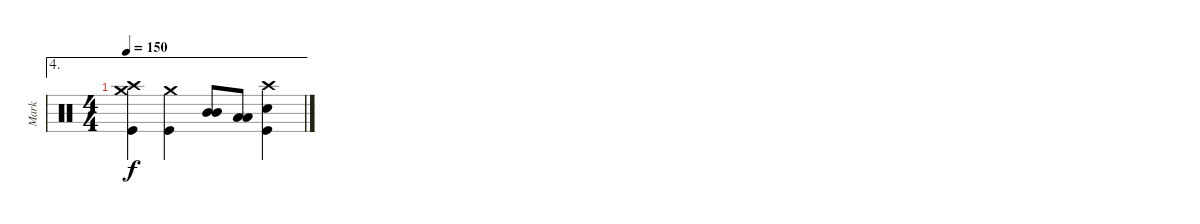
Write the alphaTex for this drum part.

\track ("Mark" "Mark") {instrument percussion}
\staff {score}
\articulation defaults
\ae 4
\ts (4 4)
\tempo 150
\clef neutral
\ks c
("Crash high (hit)" "Crash medium (hit)" "Kick (hit)").4{dy f} ("Crash medium (hit)" "Kick (hit)").4 ("Mid Tom (hit)" "Mid Tom (hit)").8 ("Low Tom (hit)" "Low Tom (hit)").8 ("Crash high (hit)" "Kick (hit)" "Electric Snare (hit)").4
